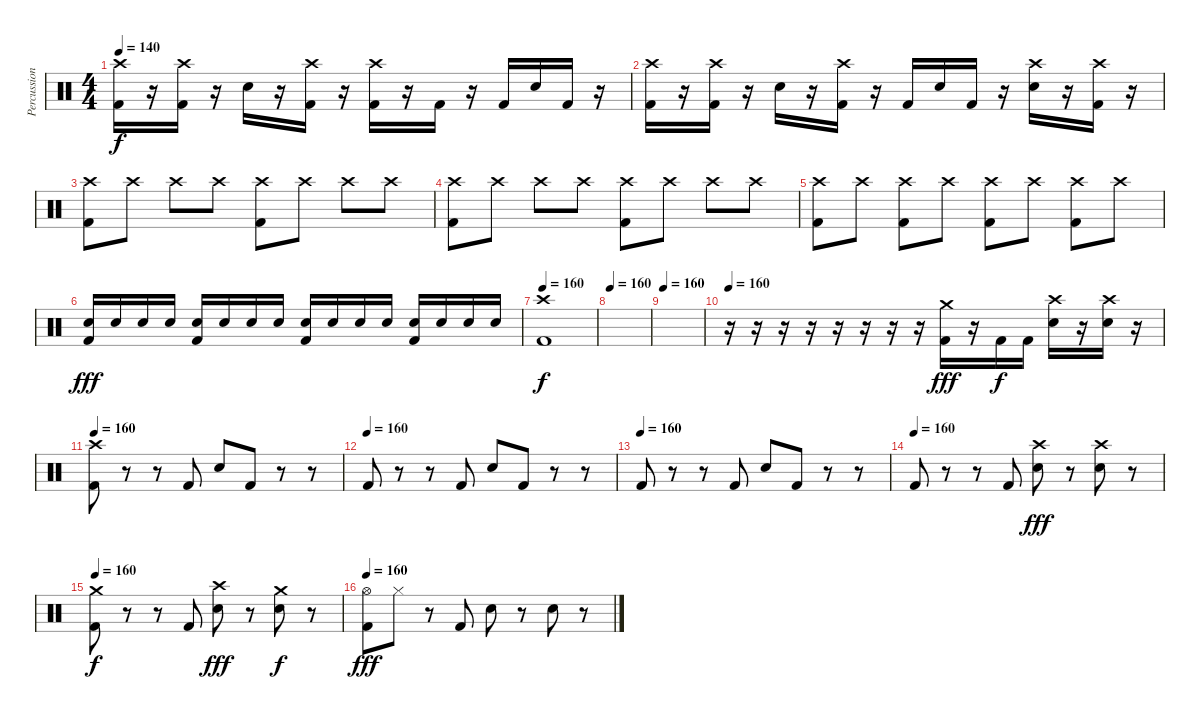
\track ("Percussion" "Percussion") {instrument percussion}
\staff {score}
\articulation defaults
\ts (4 4)
\tempo 140
\clef neutral
\ks c
("Crash high (hit)" "Kick (hit) 2").16{dy f} r.16 ("Crash high (hit)" "Kick (hit) 2").16 r.16 "Snare (hit) 2".16 r.16 ("Crash high (hit)" "Kick (hit) 2").16 r.16 ("Crash high (hit)" "Kick (hit) 2").16 r.16 "Kick (hit) 2".16 r.16 "Kick (hit) 2".16 "Snare (hit) 2".16 "Kick (hit) 2".16 r.16 |
("Crash high (hit)" "Kick (hit) 2").16 r.16 ("Crash high (hit)" "Kick (hit) 2").16 r.16 "Snare (hit) 2".16 r.16 ("Crash high (hit)" "Kick (hit) 2").16 r.16 "Kick (hit) 2".16 "Snare (hit) 2".16 "Kick (hit) 2".16 r.16 ("Crash high (hit)" "Snare (hit) 2").16 r.16 ("Crash high (hit)" "Kick (hit) 2").16 r.16 |
("Crash high (hit)" "Kick (hit) 2").8 "Crash high (hit)".8 "Crash high (hit)".8 "Crash high (hit)".8 ("Crash high (hit)" "Kick (hit) 2").8 "Crash high (hit)".8 "Crash high (hit)".8 "Crash high (hit)".8 |
("Crash high (hit)" "Kick (hit) 2").8 "Crash high (hit)".8 "Crash high (hit)".8 "Crash high (hit)".8 ("Crash high (hit)" "Kick (hit) 2").8 "Crash high (hit)".8 "Crash high (hit)".8 "Crash high (hit)".8 |
("Crash high (hit)" "Kick (hit) 2").8 "Crash high (hit)".8 ("Crash high (hit)" "Kick (hit) 2").8 "Crash high (hit)".8 ("Crash high (hit)" "Kick (hit) 2").8 "Crash high (hit)".8 ("Crash high (hit)" "Kick (hit) 2").8 "Crash high (hit)".8 |
("Snare (hit) 2" "Kick (hit) 2").16{dy fff} "Snare (hit) 2".16 "Snare (hit) 2".16 "Snare (hit) 2".16 ("Snare (hit) 2" "Kick (hit) 2").16 "Snare (hit) 2".16 "Snare (hit) 2".16 "Snare (hit) 2".16 ("Snare (hit) 2" "Kick (hit) 2").16 "Snare (hit) 2".16 "Snare (hit) 2".16 "Snare (hit) 2".16 ("Snare (hit) 2" "Kick (hit) 2").16 "Snare (hit) 2".16 "Snare (hit) 2".16 "Snare (hit) 2".16 |
\tempo 160
("Crash high (hit)" "Kick (hit) 2").1{dy f} |
\tempo 160
|
\tempo 160
|
\tempo 160
r.16 r.16 r.16 r.16 r.16 r.16 r.16 r.16 ("Crash medium (hit)" "Kick (hit) 2").16{dy fff} r.16 "Kick (hit) 2".16{dy f} "Kick (hit) 2".16 ("Crash high (hit)" "Snare (hit) 2").16 r.16 ("Crash high (hit)" "Snare (hit) 2").16 r.16 |
\tempo 160
("Crash high (hit)" "Kick (hit) 2").8 r.8 r.8 "Kick (hit) 2".8 "Snare (hit) 2".8 "Kick (hit) 2".8 r.8 r.8 |
\tempo (160)
"Kick (hit) 2".8 r.8 r.8 "Kick (hit) 2".8 "Snare (hit) 2".8 "Kick (hit) 2".8 r.8 r.8 |
\tempo (160)
"Kick (hit) 2".8 r.8 r.8 "Kick (hit) 2".8 "Snare (hit) 2".8 "Kick (hit) 2".8 r.8 r.8 |
\tempo (160)
"Kick (hit) 2".8 r.8 r.8 "Kick (hit) 2".8 ("Crash high (hit)" "Snare (hit) 2").8{dy fff} r.8 ("Crash high (hit)" "Snare (hit) 2").8 r.8 |
\tempo 160
("Crash medium (hit)" "Kick (hit) 2").8{dy f} r.8 r.8 "Kick (hit) 2".8 ("Crash high (hit)" "Snare (hit) 2").8{dy fff} r.8 ("Crash medium (hit)" "Snare (hit) 2").8{dy f} r.8 |
\tempo 160
("Hi-Hat (open)" "Kick (hit) 2").8{dy fff} "Hi-Hat (closed)".8 r.8 "Kick (hit) 2".8 "Snare (hit) 2".8 r.8 "Snare (hit) 2".8 r.8
